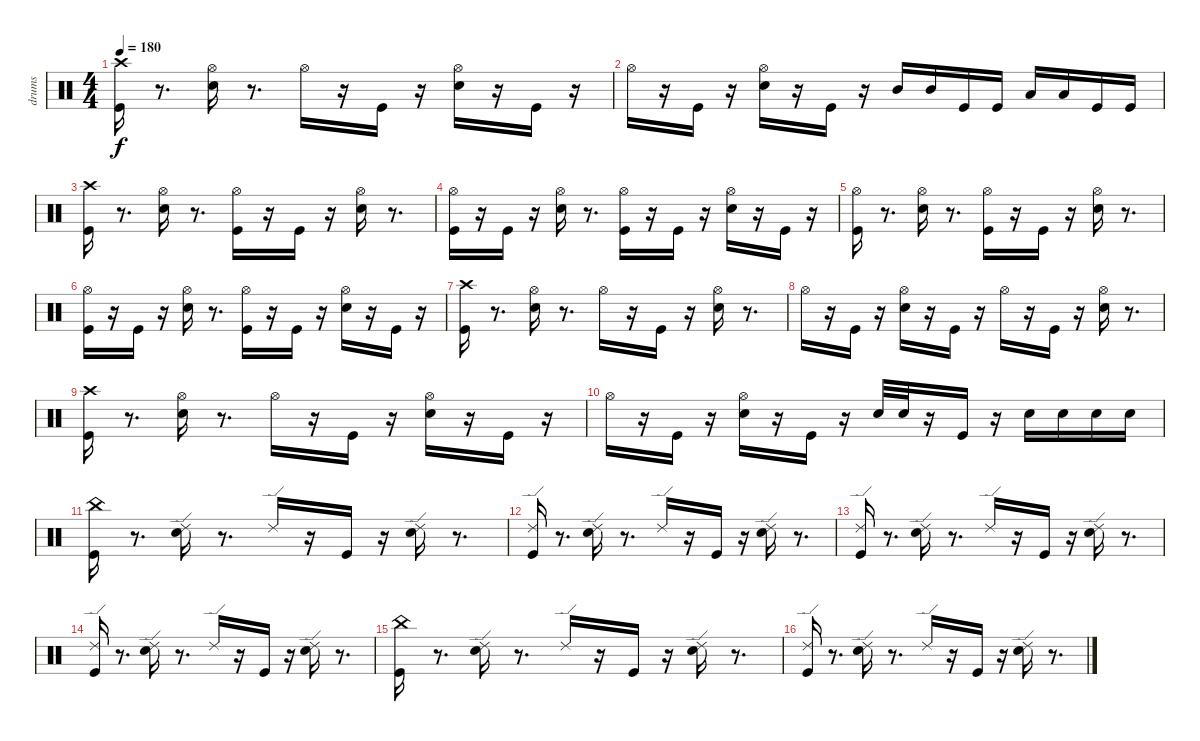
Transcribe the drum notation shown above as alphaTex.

\track ("drums" "drums") {instrument percussion}
\staff {score}
\articulation defaults
\ts (4 4)
\tempo 180
\clef neutral
\ks c
("Crash high (hit)" "Kick (hit)").16{dy f} r.8{d} ("Hi-Hat (open)" "Snare (hit) 2").16 r.8{d} "Hi-Hat (open)".16 r.16 "Kick (hit)".16 r.16 ("Hi-Hat (open)" "Snare (hit) 2").16 r.16 "Kick (hit)".16 r.16 |
"Hi-Hat (open)".16 r.16 "Kick (hit)".16 r.16 ("Hi-Hat (open)" "Snare (hit) 2").16 r.16 "Kick (hit)".16 r.16 "Mid Tom (hit)".16 "Mid Tom (hit)".16 "Kick (hit)".16 "Kick (hit)".16 "Low Tom (hit)".16 "Low Tom (hit)".16 "Kick (hit)".16 "Kick (hit)".16 |
("Crash high (hit)" "Kick (hit)").16 r.8{d} ("Hi-Hat (open)" "Snare (hit) 2").16 r.8{d} ("Hi-Hat (open)" "Kick (hit)").16 r.16 "Kick (hit)".16 r.16 ("Hi-Hat (open)" "Snare (hit) 2").16 r.8{d} |
("Hi-Hat (open)" "Kick (hit)").16 r.16 "Kick (hit)".16 r.16 ("Hi-Hat (open)" "Snare (hit) 2").16 r.8{d} ("Hi-Hat (open)" "Kick (hit)").16 r.16 "Kick (hit)".16 r.16 ("Hi-Hat (open)" "Snare (hit) 2").16 r.16 "Kick (hit)".16 r.16 |
("Hi-Hat (open)" "Kick (hit)").16 r.8{d} ("Hi-Hat (open)" "Snare (hit) 2").16 r.8{d} ("Hi-Hat (open)" "Kick (hit)").16 r.16 "Kick (hit)".16 r.16 ("Hi-Hat (open)" "Snare (hit) 2").16 r.8{d} |
("Hi-Hat (open)" "Kick (hit)").16 r.16 "Kick (hit)".16 r.16 ("Hi-Hat (open)" "Snare (hit) 2").16 r.8{d} ("Hi-Hat (open)" "Kick (hit)").16 r.16 "Kick (hit)".16 r.16 ("Hi-Hat (open)" "Snare (hit) 2").16 r.16 "Kick (hit)".16 r.16 |
("Crash high (hit)" "Kick (hit)").16 r.8{d} ("Hi-Hat (open)" "Snare (hit) 2").16 r.8{d} "Hi-Hat (open)".16 r.16 "Kick (hit)".16 r.16 ("Hi-Hat (open)" "Snare (hit) 2").16 r.8{d} |
"Hi-Hat (open)".16 r.16 "Kick (hit)".16 r.16 ("Hi-Hat (open)" "Snare (hit) 2").16 r.16 "Kick (hit)".16 r.16 "Hi-Hat (open)".16 r.16 "Kick (hit)".16 r.16 ("Hi-Hat (open)" "Snare (hit) 2").16 r.8{d} |
("Crash high (hit)" "Kick (hit)").16 r.8{d} ("Hi-Hat (open)" "Snare (hit) 2").16 r.8{d} "Hi-Hat (open)".16 r.16 "Kick (hit)".16 r.16 ("Hi-Hat (open)" "Snare (hit) 2").16 r.16 "Kick (hit)".16 r.16 |
"Hi-Hat (open)".16 r.16 "Kick (hit)".16 r.16 ("Hi-Hat (open)" "Snare (hit) 2").16 r.16 "Kick (hit)".16 r.16 "Snare (hit) 2".32 "Snare (hit) 2".32 r.16 "Kick (hit)".16 r.16 "Snare (hit) 2".16 "Snare (hit) 2".16 "Snare (hit) 2".16 "Snare (hit) 2".16 |
("China (hit)" "Kick (hit)").16 r.8{d} ("Ride (edge) 2" "Snare (hit) 2").16 r.8{d} "Ride (edge) 2".16 r.16 "Kick (hit)".16 r.16 ("Ride (edge) 2" "Snare (hit) 2").16 r.8{d} |
("Ride (edge) 2" "Kick (hit)").16 r.8{d} ("Ride (edge) 2" "Snare (hit) 2").16 r.8{d} "Ride (edge) 2".16 r.16 "Kick (hit)".16 r.16 ("Ride (edge) 2" "Snare (hit) 2").16 r.8{d} |
("Ride (edge) 2" "Kick (hit)").16 r.8{d} ("Ride (edge) 2" "Snare (hit) 2").16 r.8{d} "Ride (edge) 2".16 r.16 "Kick (hit)".16 r.16 ("Ride (edge) 2" "Snare (hit) 2").16 r.8{d} |
("Ride (edge) 2" "Kick (hit)").16 r.8{d} ("Ride (edge) 2" "Snare (hit) 2").16 r.8{d} "Ride (edge) 2".16 r.16 "Kick (hit)".16 r.16 ("Ride (edge) 2" "Snare (hit) 2").16 r.8{d} |
("China (hit)" "Kick (hit)").16 r.8{d} ("Ride (edge) 2" "Snare (hit) 2").16 r.8{d} "Ride (edge) 2".16 r.16 "Kick (hit)".16 r.16 ("Ride (edge) 2" "Snare (hit) 2").16 r.8{d} |
("Ride (edge) 2" "Kick (hit)").16 r.8{d} ("Snare (hit) 2" "Ride (edge) 2").16 r.8{d} "Ride (edge) 2".16 r.16 "Kick (hit)".16 r.16 ("Ride (edge) 2" "Snare (hit) 2").16 r.8{d}
